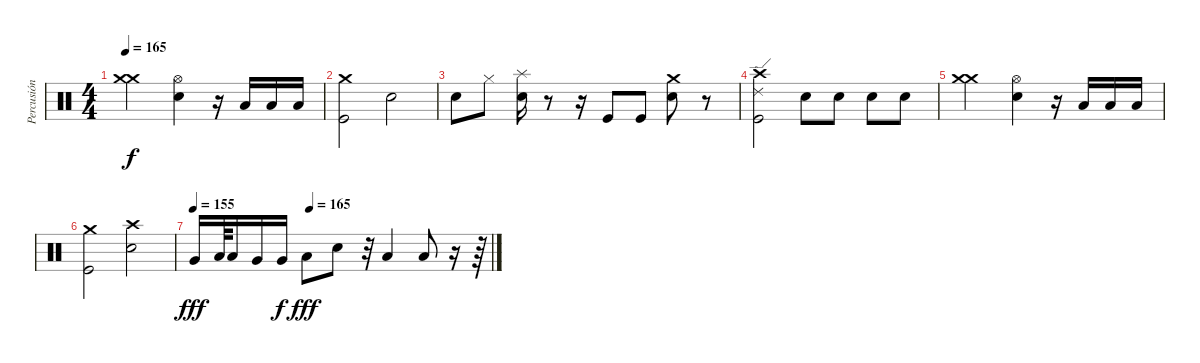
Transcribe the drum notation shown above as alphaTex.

\track ("Percusión" "Percusión") {instrument percussion}
\staff {score}
\articulation defaults
\ts (4 4)
\tempo 165
\clef neutral
\ks c
("Crash medium (hit)" "Crash medium (hit)").2{dy f} ("Hi-Hat (open)" "Electric Snare (hit)").4 r.16 "Low Floor Tom (hit)".16 "Low Floor Tom (hit)".16 "Low Floor Tom (hit)".16 |
("Crash medium (hit)" "Kick (hit)").2 "Electric Snare (hit)".2 |
"Electric Snare (hit)".8 "Hi-Hat (closed)".8 ("Splash (hit)" "Electric Snare (hit)").16 r.8 r.16 "Kick (hit)".8 "Kick (hit)".8 ("Crash medium (hit)" "Electric Snare (hit)").8 r.8 |
("Ride (edge) 2" "Crash high (hit)" "Kick (hit)").2 "Electric Snare (hit)".8 "Electric Snare (hit)".8 "Electric Snare (hit)".8 "Electric Snare (hit)".8 |
("Crash medium (hit)" "Crash medium (hit)").2 ("Hi-Hat (open)" "Electric Snare (hit)").4 r.16 "Low Floor Tom (hit)".16 "Low Floor Tom (hit)".16 "Low Floor Tom (hit)".16 |
("Crash medium (hit)" "Kick (hit)").2 ("Electric Snare (hit)" "Crash high (hit)").2 |
\tempo 155
\tempo (165 0.390625)
"Very Low Tom (hit)".16{dy fff} "Low Floor Tom (hit)".64 "Low Tom (hit)".16 "Very Low Tom (hit)".16 "Very Low Tom (hit)".16{dy f} "Low Tom (hit)".8{dy fff} "Electric Snare (hit)".8 r.32 "Low Floor Tom (hit)".4 "Low Floor Tom (hit)".8 r.16 r.64
